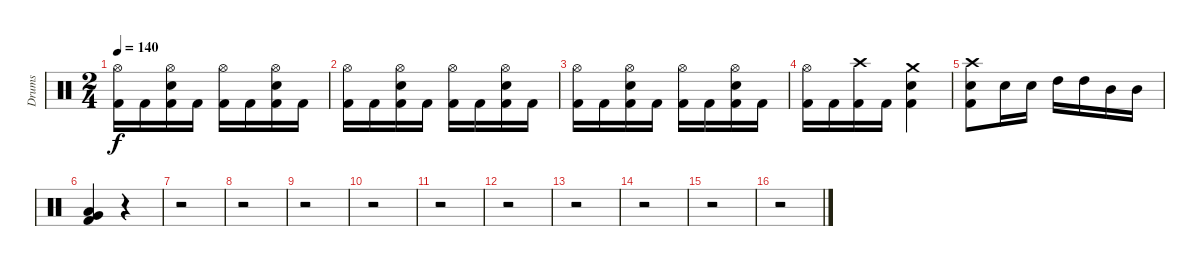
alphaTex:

\track ("Drums" "Drums") {instrument percussion}
\staff {score}
\articulation defaults
\ts (2 4)
\tempo 140
\clef neutral
\ks c
("Kick (hit) 2" "Hi-Hat (open)").16{dy f} "Kick (hit) 2".16 ("Kick (hit) 2" "Electric Snare (hit)" "Hi-Hat (open)").16 "Kick (hit) 2".16 ("Kick (hit) 2" "Hi-Hat (open)").16 "Kick (hit) 2".16 ("Kick (hit) 2" "Electric Snare (hit)" "Hi-Hat (open)").16 "Kick (hit) 2".16 |
("Kick (hit) 2" "Hi-Hat (open)").16 "Kick (hit) 2".16 ("Kick (hit) 2" "Electric Snare (hit)" "Hi-Hat (open)").16 "Kick (hit) 2".16 ("Kick (hit) 2" "Hi-Hat (open)").16 "Kick (hit) 2".16 ("Kick (hit) 2" "Electric Snare (hit)" "Hi-Hat (open)").16 "Kick (hit) 2".16 |
("Kick (hit) 2" "Hi-Hat (open)").16 "Kick (hit) 2".16 ("Kick (hit) 2" "Electric Snare (hit)" "Hi-Hat (open)").16 "Kick (hit) 2".16 ("Kick (hit) 2" "Hi-Hat (open)").16 "Kick (hit) 2".16 ("Kick (hit) 2" "Electric Snare (hit)" "Hi-Hat (open)").16 "Kick (hit) 2".16 |
("Kick (hit) 2" "Hi-Hat (open)").16 "Kick (hit) 2".16 ("Kick (hit) 2" "Crash high (hit)").16 "Kick (hit) 2".16 ("Kick (hit) 2" "Electric Snare (hit)" "Crash medium (hit)").4 |
("Kick (hit) 2" "Electric Snare (hit)" "Crash high (hit)").8 "Electric Snare (hit)".16 "Electric Snare (hit)".16 "High Tom (hit)".16 "High Tom (hit)".16 "Mid Tom (hit)".16 "Mid Tom (hit)".16 |
("Kick (hit) 2" "Low Tom (hit)" "Very Low Tom (hit)").4 r.4 |
r.2 |
r.2 |
r.2 |
r.2 |
r.2 |
r.2 |
r.2 |
r.2 |
r.2 |
r.2
